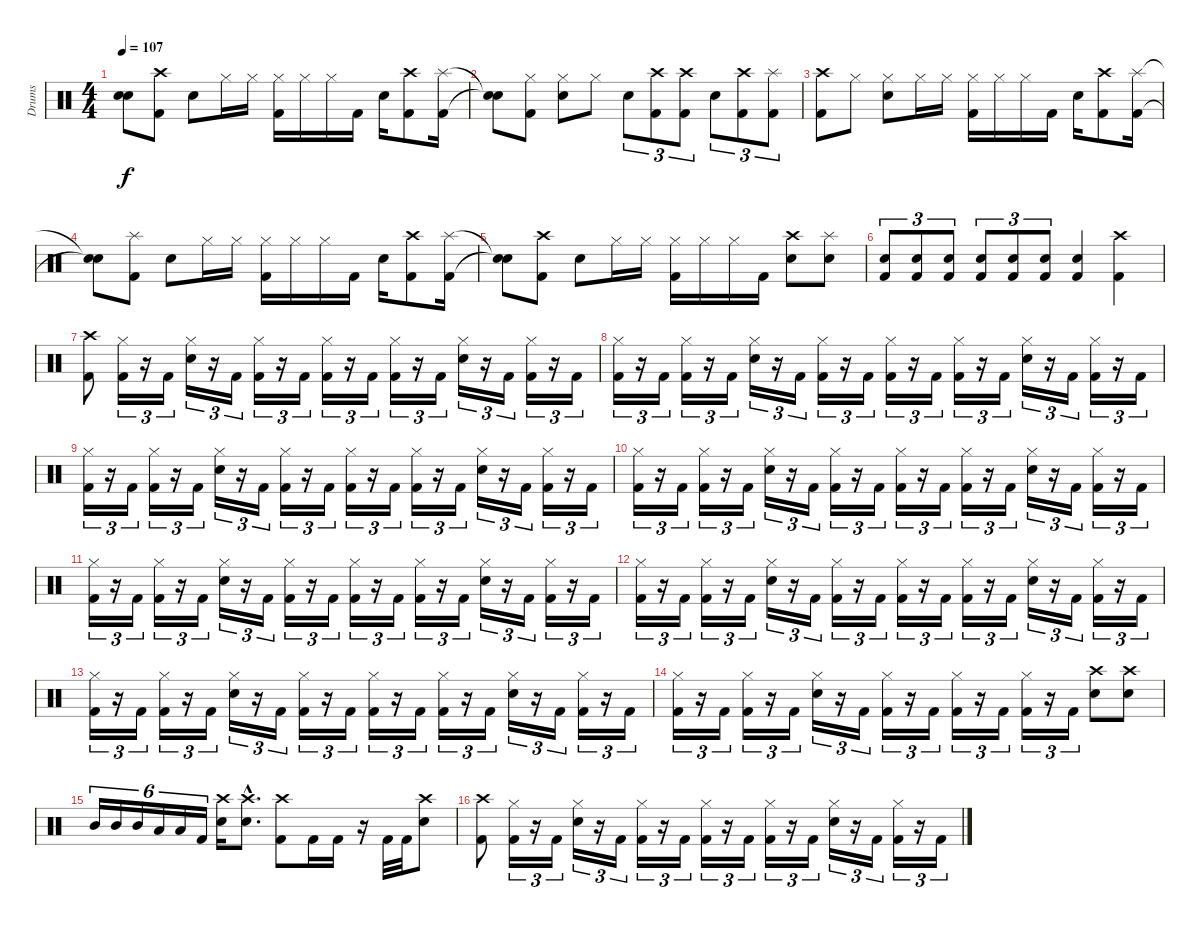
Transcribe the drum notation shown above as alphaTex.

\track ("Drums" "Drums") {instrument percussion}
\staff {score}
\articulation defaults
\ts (4 4)
\tempo 107
\clef neutral
\ks c
("Snare (hit)"{t} "Snare (hit)"{t}).8{dy f} ("Crash high (hit)" "Kick (hit) 2").8 "Electric Snare (hit)".8 "Hi-Hat (closed)".16 "Hi-Hat (closed)".16 ("Hi-Hat (closed)" "Kick (hit) 2").16 "Hi-Hat (closed)".16 "Hi-Hat (closed)".16 "Kick (hit) 2".16 "Electric Snare (hit)".16 ("Crash high (hit)" "Kick (hit) 2").8 ("Splash (hit)" "Kick (hit) 2").16 |
("Snare (hit)"{t} "Snare (hit)"{t}).8 ("Hi-Hat (closed)" "Kick (hit) 2").8 ("Hi-Hat (closed)" "Electric Snare (hit)").8 "Hi-Hat (closed)".8 "Electric Snare (hit)".8{tu (3 2)} ("Crash high (hit)" "Kick (hit) 2").8{tu (3 2)} ("Crash high (hit)" "Kick (hit) 2").8{tu (3 2)} "Electric Snare (hit)".8{tu (3 2)} ("Crash high (hit)" "Kick (hit) 2").8{tu (3 2)} ("Splash (hit)" "Kick (hit) 2").8{tu (3 2)} |
("Crash high (hit)" "Kick (hit) 2").8 "Hi-Hat (closed)".8 ("Hi-Hat (closed)" "Electric Snare (hit)").8 "Hi-Hat (closed)".16 "Hi-Hat (closed)".16 ("Hi-Hat (closed)" "Kick (hit) 2").16 "Hi-Hat (closed)".16 "Hi-Hat (closed)".16 "Kick (hit) 2".16 "Electric Snare (hit)".16 ("Crash high (hit)" "Kick (hit) 2").8 ("Splash (hit)" "Kick (hit) 2").16 |
("Snare (hit)"{t} "Snare (hit)"{t}).8 ("Splash (hit)" "Kick (hit) 2").8 "Electric Snare (hit)".8 "Hi-Hat (closed)".16 "Hi-Hat (closed)".16 ("Hi-Hat (closed)" "Kick (hit) 2").16 "Hi-Hat (closed)".16 "Hi-Hat (closed)".16 "Kick (hit) 2".16 "Electric Snare (hit)".16 ("Crash high (hit)" "Kick (hit) 2").8 ("Splash (hit)" "Kick (hit) 2").16 |
("Snare (hit)"{t} "Snare (hit)"{t}).8 ("Crash high (hit)" "Kick (hit) 2").8 "Electric Snare (hit)".8 "Hi-Hat (closed)".16 "Hi-Hat (closed)".16 ("Hi-Hat (closed)" "Kick (hit) 2").16 "Hi-Hat (closed)".16 "Hi-Hat (closed)".16 "Kick (hit) 2".16 ("Crash high (hit)" "Electric Snare (hit)").8 ("Splash (hit)" "Electric Snare (hit)").8 |
("Electric Snare (hit)" "Kick (hit) 2").8{tu (3 2)} ("Electric Snare (hit)" "Kick (hit) 2").8{tu (3 2)} ("Electric Snare (hit)" "Kick (hit) 2").8{tu (3 2)} ("Electric Snare (hit)" "Kick (hit) 2").8{tu (3 2)} ("Electric Snare (hit)" "Kick (hit) 2").8{tu (3 2)} ("Electric Snare (hit)" "Kick (hit) 2").8{tu (3 2)} ("Electric Snare (hit)" "Kick (hit) 2").4 ("Crash high (hit)" "Kick (hit) 2").4 |
("Crash high (hit)" "Kick (hit) 2").8{balance 8} ("Hi-Hat (closed)" "Kick (hit) 2").16{tu (3 2)} r.16{tu (3 2)} "Kick (hit) 2".16{tu (3 2)} ("Hi-Hat (closed)" "Electric Snare (hit)").16{tu (3 2)} r.16{tu (3 2)} "Kick (hit) 2".16{tu (3 2)} ("Hi-Hat (closed)" "Kick (hit) 2").16{tu (3 2)} r.16{tu (3 2)} "Kick (hit) 2".16{tu (3 2)} ("Hi-Hat (closed)" "Kick (hit) 2").16{tu (3 2)} r.16{tu (3 2)} "Kick (hit) 2".16{tu (3 2)} ("Hi-Hat (closed)" "Kick (hit) 2").16{tu (3 2)} r.16{tu (3 2)} "Kick (hit) 2".16{tu (3 2)} ("Hi-Hat (closed)" "Electric Snare (hit)").16{tu (3 2)} r.16{tu (3 2)} "Kick (hit) 2".16{tu (3 2)} ("Hi-Hat (closed)" "Kick (hit) 2").16{tu (3 2)} r.16{tu (3 2)} "Kick (hit) 2".16{tu (3 2)} |
("Hi-Hat (closed)" "Kick (hit) 2").16{tu (3 2)} r.16{tu (3 2)} "Kick (hit) 2".16{tu (3 2)} ("Hi-Hat (closed)" "Kick (hit) 2").16{tu (3 2)} r.16{tu (3 2)} "Kick (hit) 2".16{tu (3 2)} ("Hi-Hat (closed)" "Electric Snare (hit)").16{tu (3 2)} r.16{tu (3 2)} "Kick (hit) 2".16{tu (3 2)} ("Hi-Hat (closed)" "Kick (hit) 2").16{tu (3 2)} r.16{tu (3 2)} "Kick (hit) 2".16{tu (3 2)} ("Hi-Hat (closed)" "Kick (hit) 2").16{tu (3 2)} r.16{tu (3 2)} "Kick (hit) 2".16{tu (3 2)} ("Hi-Hat (closed)" "Kick (hit) 2").16{tu (3 2)} r.16{tu (3 2)} "Kick (hit) 2".16{tu (3 2)} ("Hi-Hat (closed)" "Electric Snare (hit)").16{tu (3 2)} r.16{tu (3 2)} "Kick (hit) 2".16{tu (3 2)} ("Hi-Hat (closed)" "Kick (hit) 2").16{tu (3 2)} r.16{tu (3 2)} "Kick (hit) 2".16{tu (3 2)} |
("Hi-Hat (closed)" "Kick (hit) 2").16{tu (3 2)} r.16{tu (3 2)} "Kick (hit) 2".16{tu (3 2)} ("Hi-Hat (closed)" "Kick (hit) 2").16{tu (3 2)} r.16{tu (3 2)} "Kick (hit) 2".16{tu (3 2)} ("Hi-Hat (closed)" "Electric Snare (hit)").16{tu (3 2)} r.16{tu (3 2)} "Kick (hit) 2".16{tu (3 2)} ("Hi-Hat (closed)" "Kick (hit) 2").16{tu (3 2)} r.16{tu (3 2)} "Kick (hit) 2".16{tu (3 2)} ("Hi-Hat (closed)" "Kick (hit) 2").16{tu (3 2)} r.16{tu (3 2)} "Kick (hit) 2".16{tu (3 2)} ("Hi-Hat (closed)" "Kick (hit) 2").16{tu (3 2)} r.16{tu (3 2)} "Kick (hit) 2".16{tu (3 2)} ("Hi-Hat (closed)" "Electric Snare (hit)").16{tu (3 2)} r.16{tu (3 2)} "Kick (hit) 2".16{tu (3 2)} ("Hi-Hat (closed)" "Kick (hit) 2").16{tu (3 2)} r.16{tu (3 2)} "Kick (hit) 2".16{tu (3 2)} |
("Hi-Hat (closed)" "Kick (hit) 2").16{tu (3 2)} r.16{tu (3 2)} "Kick (hit) 2".16{tu (3 2)} ("Hi-Hat (closed)" "Kick (hit) 2").16{tu (3 2)} r.16{tu (3 2)} "Kick (hit) 2".16{tu (3 2)} ("Hi-Hat (closed)" "Electric Snare (hit)").16{tu (3 2)} r.16{tu (3 2)} "Kick (hit) 2".16{tu (3 2)} ("Hi-Hat (closed)" "Kick (hit) 2").16{tu (3 2)} r.16{tu (3 2)} "Kick (hit) 2".16{tu (3 2)} ("Hi-Hat (closed)" "Kick (hit) 2").16{tu (3 2)} r.16{tu (3 2)} "Kick (hit) 2".16{tu (3 2)} ("Hi-Hat (closed)" "Kick (hit) 2").16{tu (3 2)} r.16{tu (3 2)} "Kick (hit) 2".16{tu (3 2)} ("Hi-Hat (closed)" "Electric Snare (hit)").16{tu (3 2)} r.16{tu (3 2)} "Kick (hit) 2".16{tu (3 2)} ("Hi-Hat (closed)" "Kick (hit) 2").16{tu (3 2)} r.16{tu (3 2)} "Kick (hit) 2".16{tu (3 2)} |
("Hi-Hat (closed)" "Kick (hit) 2").16{tu (3 2)} r.16{tu (3 2)} "Kick (hit) 2".16{tu (3 2)} ("Hi-Hat (closed)" "Kick (hit) 2").16{tu (3 2)} r.16{tu (3 2)} "Kick (hit) 2".16{tu (3 2)} ("Hi-Hat (closed)" "Electric Snare (hit)").16{tu (3 2)} r.16{tu (3 2)} "Kick (hit) 2".16{tu (3 2)} ("Hi-Hat (closed)" "Kick (hit) 2").16{tu (3 2)} r.16{tu (3 2)} "Kick (hit) 2".16{tu (3 2)} ("Hi-Hat (closed)" "Kick (hit) 2").16{tu (3 2)} r.16{tu (3 2)} "Kick (hit) 2".16{tu (3 2)} ("Hi-Hat (closed)" "Kick (hit) 2").16{tu (3 2)} r.16{tu (3 2)} "Kick (hit) 2".16{tu (3 2)} ("Hi-Hat (closed)" "Electric Snare (hit)").16{tu (3 2)} r.16{tu (3 2)} "Kick (hit) 2".16{tu (3 2)} ("Hi-Hat (closed)" "Kick (hit) 2").16{tu (3 2)} r.16{tu (3 2)} "Kick (hit) 2".16{tu (3 2)} |
("Hi-Hat (closed)" "Kick (hit) 2").16{tu (3 2)} r.16{tu (3 2)} "Kick (hit) 2".16{tu (3 2)} ("Hi-Hat (closed)" "Kick (hit) 2").16{tu (3 2)} r.16{tu (3 2)} "Kick (hit) 2".16{tu (3 2)} ("Hi-Hat (closed)" "Electric Snare (hit)").16{tu (3 2)} r.16{tu (3 2)} "Kick (hit) 2".16{tu (3 2)} ("Hi-Hat (closed)" "Kick (hit) 2").16{tu (3 2)} r.16{tu (3 2)} "Kick (hit) 2".16{tu (3 2)} ("Hi-Hat (closed)" "Kick (hit) 2").16{tu (3 2)} r.16{tu (3 2)} "Kick (hit) 2".16{tu (3 2)} ("Hi-Hat (closed)" "Kick (hit) 2").16{tu (3 2)} r.16{tu (3 2)} "Kick (hit) 2".16{tu (3 2)} ("Hi-Hat (closed)" "Electric Snare (hit)").16{tu (3 2)} r.16{tu (3 2)} "Kick (hit) 2".16{tu (3 2)} ("Hi-Hat (closed)" "Kick (hit) 2").16{tu (3 2)} r.16{tu (3 2)} "Kick (hit) 2".16{tu (3 2)} |
("Hi-Hat (closed)" "Kick (hit) 2").16{tu (3 2)} r.16{tu (3 2)} "Kick (hit) 2".16{tu (3 2)} ("Hi-Hat (closed)" "Kick (hit) 2").16{tu (3 2)} r.16{tu (3 2)} "Kick (hit) 2".16{tu (3 2)} ("Hi-Hat (closed)" "Electric Snare (hit)").16{tu (3 2)} r.16{tu (3 2)} "Kick (hit) 2".16{tu (3 2)} ("Hi-Hat (closed)" "Kick (hit) 2").16{tu (3 2)} r.16{tu (3 2)} "Kick (hit) 2".16{tu (3 2)} ("Hi-Hat (closed)" "Kick (hit) 2").16{tu (3 2)} r.16{tu (3 2)} "Kick (hit) 2".16{tu (3 2)} ("Hi-Hat (closed)" "Kick (hit) 2").16{tu (3 2)} r.16{tu (3 2)} "Kick (hit) 2".16{tu (3 2)} ("Hi-Hat (closed)" "Electric Snare (hit)").16{tu (3 2)} r.16{tu (3 2)} "Kick (hit) 2".16{tu (3 2)} ("Hi-Hat (closed)" "Kick (hit) 2").16{tu (3 2)} r.16{tu (3 2)} "Kick (hit) 2".16{tu (3 2)} |
("Hi-Hat (closed)" "Kick (hit) 2").16{tu (3 2)} r.16{tu (3 2)} "Kick (hit) 2".16{tu (3 2)} ("Hi-Hat (closed)" "Kick (hit) 2").16{tu (3 2)} r.16{tu (3 2)} "Kick (hit) 2".16{tu (3 2)} ("Hi-Hat (closed)" "Electric Snare (hit)").16{tu (3 2)} r.16{tu (3 2)} "Kick (hit) 2".16{tu (3 2)} ("Hi-Hat (closed)" "Kick (hit) 2").16{tu (3 2)} r.16{tu (3 2)} "Kick (hit) 2".16{tu (3 2)} ("Hi-Hat (closed)" "Kick (hit) 2").16{tu (3 2)} r.16{tu (3 2)} "Kick (hit) 2".16{tu (3 2)} ("Hi-Hat (closed)" "Kick (hit) 2").16{tu (3 2)} r.16{tu (3 2)} "Kick (hit) 2".16{tu (3 2)} ("Crash high (hit)" "Electric Snare (hit)").8 ("Crash high (hit)" "Electric Snare (hit)").8 |
"Mid Tom (hit)".16{tu (6 4)} "Mid Tom (hit)".16{tu (6 4)} "Mid Tom (hit)".16{tu (6 4)} "Low Tom (hit)".16{tu (6 4)} "Low Tom (hit)".16{tu (6 4)} "Kick (hit) 2".16{tu (6 4)} ("Crash high (hit)" "Electric Snare (hit)").16 ("Electric Snare (hit)"{hac} "Crash high (hit)"{hac}).8{d} ("Crash high (hit)" "Kick (hit) 2").8 "Kick (hit) 2".16 "Kick (hit) 2".16 r.16 "Kick (hit) 2".32 "Kick (hit) 2".32 ("Crash high (hit)" "Electric Snare (hit)").8 |
("Crash high (hit)" "Kick (hit) 2").8{balance 8} ("Hi-Hat (closed)" "Kick (hit) 2").16{tu (3 2)} r.16{tu (3 2)} "Kick (hit) 2".16{tu (3 2)} ("Hi-Hat (closed)" "Electric Snare (hit)").16{tu (3 2)} r.16{tu (3 2)} "Kick (hit) 2".16{tu (3 2)} ("Hi-Hat (closed)" "Kick (hit) 2").16{tu (3 2)} r.16{tu (3 2)} "Kick (hit) 2".16{tu (3 2)} ("Hi-Hat (closed)" "Kick (hit) 2").16{tu (3 2)} r.16{tu (3 2)} "Kick (hit) 2".16{tu (3 2)} ("Hi-Hat (closed)" "Kick (hit) 2").16{tu (3 2)} r.16{tu (3 2)} "Kick (hit) 2".16{tu (3 2)} ("Hi-Hat (closed)" "Electric Snare (hit)").16{tu (3 2)} r.16{tu (3 2)} "Kick (hit) 2".16{tu (3 2)} ("Hi-Hat (closed)" "Kick (hit) 2").16{tu (3 2)} r.16{tu (3 2)} "Kick (hit) 2".16{tu (3 2)}
